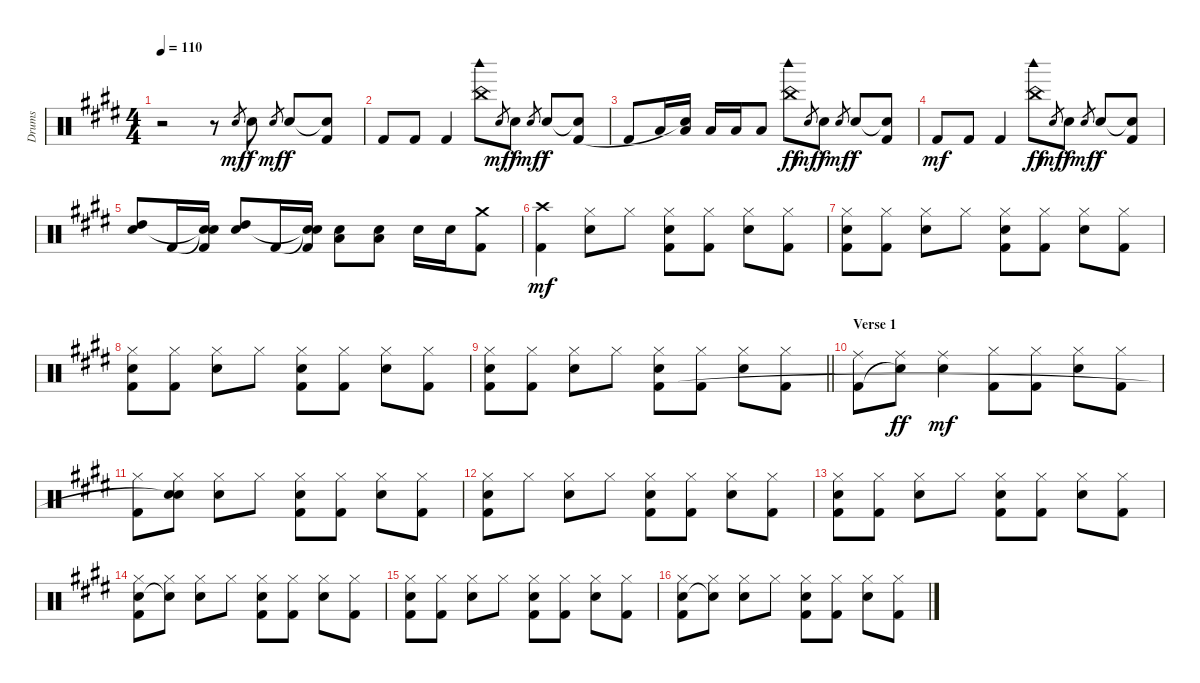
\track ("Drums" "Drums") {instrument percussion}
\staff {score}
\articulation defaults
\ts (4 4)
\tempo 110
\clef neutral
\ks c#minor
r.2{dy mf} r.8 "Electric Snare (hit)".8{gr} "Electric Snare (hit)".8{dy f} "Electric Snare (hit)".8{gr dy mf} "Electric Snare (hit)".8{dy f} ("Snare (hit)"{t} "Kick (hit) 2").8 |
"Kick (hit) 2".8 "Kick (hit) 2".8 "Kick (hit) 2".4 ("China (hit)" "Woodblock high (hit)").8 "Electric Snare (hit)".8{gr dy mf} "Electric Snare (hit)".8{dy f} "Electric Snare (hit)".8{gr dy mf} "Electric Snare (hit)".8{dy f} ("Snare (hit)"{t} "Kick (hit) 2").8 |
"Kick (hit) 2".8 "Low Tom (hit)".16 ("Low Tom (hit)" "Snare (hit)"{t}).16 "Low Tom (hit)".16 "Low Tom (hit)".16 "Low Tom (hit)".8 ("China (hit)" "Woodblock high (hit)").8{dy ff} "Electric Snare (hit)".8{gr dy mf} "Electric Snare (hit)".8{dy f} "Electric Snare (hit)".8{gr dy mf} "Electric Snare (hit)".8{dy f} ("Snare (hit)"{t} "Kick (hit) 2").8 |
"Kick (hit) 2".8{dy mf} "Kick (hit) 2".8 "Kick (hit) 2".4 ("China (hit)" "Woodblock high (hit)").8{dy ff} "Electric Snare (hit)".8{gr dy mf} "Electric Snare (hit)".8{dy f} "Electric Snare (hit)".8{gr dy mf} "Electric Snare (hit)".8{dy f} ("Snare (hit)"{t} "Kick (hit) 2").8 |
("High Tom (hit)" "Electric Snare (hit)").8 "Kick (hit) 2".16 ("Snare (hit)"{t} "Snare (hit)"{t} "Kick (hit) 2").16 ("High Tom (hit)" "Electric Snare (hit)").8 "Kick (hit) 2".16 ("Snare (hit)"{t} "Snare (hit)"{t} "Kick (hit) 2").16 ("Low Tom (hit)" "Electric Snare (hit)").8 ("Low Tom (hit)" "Electric Snare (hit)").8 "Electric Snare (hit)".16 "Electric Snare (hit)".16 ("Crash medium (hit)" "Kick (hit) 2").8 |
("Crash high (hit)" "Kick (hit) 2").4{dy mf} ("Hi-Hat (closed)" "Electric Snare (hit)").8 "Hi-Hat (closed)".8 ("Hi-Hat (closed)" "Electric Snare (hit)" "Kick (hit) 2").8 ("Hi-Hat (closed)" "Kick (hit) 2").8 ("Hi-Hat (closed)" "Electric Snare (hit)").8 ("Hi-Hat (closed)" "Kick (hit) 2").8 |
("Hi-Hat (closed)" "Electric Snare (hit)" "Kick (hit) 2").8 ("Hi-Hat (closed)" "Kick (hit) 2").8 ("Hi-Hat (closed)" "Electric Snare (hit)").8 "Hi-Hat (closed)".8 ("Hi-Hat (closed)" "Electric Snare (hit)" "Kick (hit) 2").8 ("Hi-Hat (closed)" "Kick (hit) 2").8 ("Hi-Hat (closed)" "Electric Snare (hit)").8 ("Hi-Hat (closed)" "Kick (hit) 2").8 |
("Hi-Hat (closed)" "Electric Snare (hit)" "Kick (hit) 2").8 ("Hi-Hat (closed)" "Kick (hit) 2").8 ("Hi-Hat (closed)" "Electric Snare (hit)").8 "Hi-Hat (closed)".8 ("Hi-Hat (closed)" "Electric Snare (hit)" "Kick (hit) 2").8 ("Hi-Hat (closed)" "Kick (hit) 2").8 ("Hi-Hat (closed)" "Electric Snare (hit)").8 ("Hi-Hat (closed)" "Kick (hit) 2").8 |
\barLineRight lightlight
("Hi-Hat (closed)" "Electric Snare (hit)" "Kick (hit) 2").8 ("Hi-Hat (closed)" "Kick (hit) 2").8 ("Hi-Hat (closed)" "Electric Snare (hit)").8 "Hi-Hat (closed)".8 ("Hi-Hat (closed)" "Electric Snare (hit)" "Kick (hit) 2").8 ("Hi-Hat (closed)" "Kick (hit) 2").8 ("Hi-Hat (closed)" "Electric Snare (hit)").8 ("Hi-Hat (closed)" "Kick (hit) 2").8 |
\section ("" "Verse 1")
("Ride (middle)" "Kick (hit) 2").8 ("Ride (middle)" "Snare (hit)"{t}).8{dy ff} ("Ride (middle)" "Electric Snare (hit)").4{dy mf} ("Hi-Hat (closed)" "Kick (hit) 2").8 ("Hi-Hat (closed)" "Kick (hit) 2").8 ("Hi-Hat (closed)" "Electric Snare (hit)").8 ("Hi-Hat (closed)" "Kick (hit) 2").8 |
("Hi-Hat (closed)" "Kick (hit) 2").8 ("Hi-Hat (closed)" "Electric Snare (hit)" "Snare (hit)"{t}).8 ("Hi-Hat (closed)" "Electric Snare (hit)").8 "Hi-Hat (closed)".8 ("Hi-Hat (closed)" "Electric Snare (hit)" "Kick (hit) 2").8 ("Hi-Hat (closed)" "Kick (hit) 2").8 ("Hi-Hat (closed)" "Electric Snare (hit)").8 ("Hi-Hat (closed)" "Kick (hit) 2").8 |
("Hi-Hat (closed)" "Electric Snare (hit)" "Kick (hit) 2").8 "Hi-Hat (closed)".8 ("Hi-Hat (closed)" "Electric Snare (hit)").8 "Hi-Hat (closed)".8 ("Hi-Hat (closed)" "Electric Snare (hit)" "Kick (hit) 2").8 ("Hi-Hat (closed)" "Kick (hit) 2").8 ("Hi-Hat (closed)" "Electric Snare (hit)").8 ("Hi-Hat (closed)" "Kick (hit) 2").8 |
("Hi-Hat (closed)" "Electric Snare (hit)" "Kick (hit) 2").8 ("Hi-Hat (closed)" "Kick (hit) 2").8 ("Hi-Hat (closed)" "Electric Snare (hit)").8 "Hi-Hat (closed)".8 ("Hi-Hat (closed)" "Electric Snare (hit)" "Kick (hit) 2").8 ("Hi-Hat (closed)" "Kick (hit) 2").8 ("Hi-Hat (closed)" "Electric Snare (hit)").8 ("Hi-Hat (closed)" "Kick (hit) 2").8 |
("Hi-Hat (closed)" "Electric Snare (hit)" "Kick (hit) 2").8 ("Hi-Hat (closed)" "Snare (hit)"{t}).8 ("Hi-Hat (closed)" "Electric Snare (hit)").8 "Hi-Hat (closed)".8 ("Hi-Hat (closed)" "Electric Snare (hit)" "Kick (hit) 2").8 ("Hi-Hat (closed)" "Kick (hit) 2").8 ("Hi-Hat (closed)" "Electric Snare (hit)").8 ("Hi-Hat (closed)" "Kick (hit) 2").8 |
("Hi-Hat (closed)" "Electric Snare (hit)" "Kick (hit) 2").8 ("Hi-Hat (closed)" "Kick (hit) 2").8 ("Hi-Hat (closed)" "Electric Snare (hit)").8 "Hi-Hat (closed)".8 ("Hi-Hat (closed)" "Electric Snare (hit)" "Kick (hit) 2").8 ("Hi-Hat (closed)" "Kick (hit) 2").8 ("Hi-Hat (closed)" "Electric Snare (hit)").8 ("Hi-Hat (closed)" "Kick (hit) 2").8 |
("Hi-Hat (closed)" "Electric Snare (hit)" "Kick (hit) 2").8 ("Hi-Hat (closed)" "Snare (hit)"{t}).8 ("Hi-Hat (closed)" "Electric Snare (hit)").8 "Hi-Hat (closed)".8 ("Hi-Hat (closed)" "Electric Snare (hit)" "Kick (hit) 2").8 ("Hi-Hat (closed)" "Kick (hit) 2").8 ("Hi-Hat (closed)" "Electric Snare (hit)").8 ("Hi-Hat (closed)" "Kick (hit) 2").8
